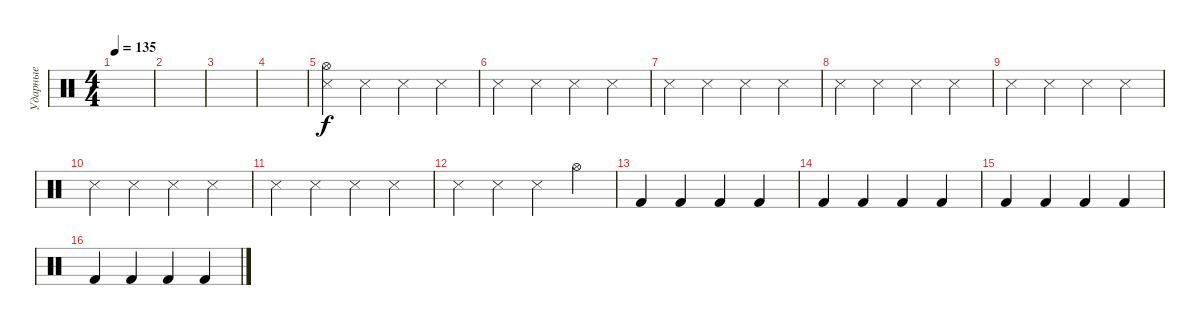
\track ("Ударные" "Ударные") {instrument percussion}
\staff {score}
\articulation defaults
\ts (4 4)
\tempo 135
\clef neutral
\ks c
|
|
|
|
("Snare (side stick) 3" "Hi-Hat (open)").4 "Snare (side stick) 3".4{volume 13} "Snare (side stick) 3".4 "Snare (side stick) 3".4 |
"Snare (side stick) 3".4 "Snare (side stick) 3".4 "Snare (side stick) 3".4 "Snare (side stick) 3".4 |
"Snare (side stick) 3".4 "Snare (side stick) 3".4 "Snare (side stick) 3".4 "Snare (side stick) 3".4 |
"Snare (side stick) 3".4 "Snare (side stick) 3".4 "Snare (side stick) 3".4 "Snare (side stick) 3".4 |
"Snare (side stick) 3".4 "Snare (side stick) 3".4 "Snare (side stick) 3".4 "Snare (side stick) 3".4 |
"Snare (side stick) 3".4 "Snare (side stick) 3".4 "Snare (side stick) 3".4 "Snare (side stick) 3".4 |
"Snare (side stick) 3".4 "Snare (side stick) 3".4 "Snare (side stick) 3".4 "Snare (side stick) 3".4 |
"Snare (side stick) 3".4 "Snare (side stick) 3".4 "Snare (side stick) 3".4 "Hi-Hat (open)".4 |
"Kick (hit) 2".4 "Kick (hit) 2".4 "Kick (hit) 2".4 "Kick (hit) 2".4 |
"Kick (hit) 2".4 "Kick (hit) 2".4 "Kick (hit) 2".4 "Kick (hit) 2".4 |
"Kick (hit) 2".4 "Kick (hit) 2".4 "Kick (hit) 2".4 "Kick (hit) 2".4 |
"Kick (hit) 2".4 "Kick (hit) 2".4 "Kick (hit) 2".4 "Kick (hit) 2".4
